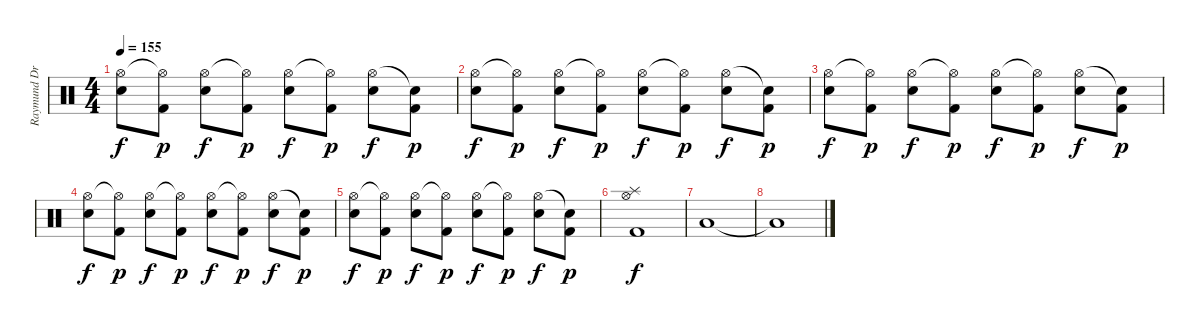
\track ("Raymund Drums" "Raymund Dr") {instrument percussion}
\staff {score}
\articulation defaults
\ts (4 4)
\tempo 155
\clef neutral
\ks c
("Hi-Hat (open)" "Snare (hit) 2").8{dy f} ("Hi-Hat (open)"{t} "Kick (hit) 2").8{dy p} ("Hi-Hat (open)" "Snare (hit) 2").8{dy f} ("Hi-Hat (open)"{t} "Kick (hit) 2").8{dy p} ("Hi-Hat (open)" "Snare (hit) 2").8{dy f} ("Hi-Hat (open)"{t} "Kick (hit) 2").8{dy p} ("Hi-Hat (open)" "Snare (hit) 2").8{dy f} ("Snare (hit)"{t} "Kick (hit) 2").8{dy p} |
("Hi-Hat (open)" "Snare (hit) 2").8{dy f} ("Hi-Hat (open)"{t} "Kick (hit) 2").8{dy p} ("Hi-Hat (open)" "Snare (hit) 2").8{dy f} ("Hi-Hat (open)"{t} "Kick (hit) 2").8{dy p} ("Hi-Hat (open)" "Snare (hit) 2").8{dy f} ("Hi-Hat (open)"{t} "Kick (hit) 2").8{dy p} ("Hi-Hat (open)" "Snare (hit) 2").8{dy f} ("Snare (hit)"{t} "Kick (hit) 2").8{dy p} |
("Hi-Hat (open)" "Snare (hit) 2").8{dy f} ("Hi-Hat (open)"{t} "Kick (hit) 2").8{dy p} ("Hi-Hat (open)" "Snare (hit) 2").8{dy f} ("Hi-Hat (open)"{t} "Kick (hit) 2").8{dy p} ("Hi-Hat (open)" "Snare (hit) 2").8{dy f} ("Hi-Hat (open)"{t} "Kick (hit) 2").8{dy p} ("Hi-Hat (open)" "Snare (hit) 2").8{dy f} ("Snare (hit)"{t} "Kick (hit) 2").8{dy p} |
("Hi-Hat (open)" "Snare (hit) 2").8{dy f} ("Hi-Hat (open)"{t} "Kick (hit) 2").8{dy p} ("Hi-Hat (open)" "Snare (hit) 2").8{dy f} ("Hi-Hat (open)"{t} "Kick (hit) 2").8{dy p} ("Hi-Hat (open)" "Snare (hit) 2").8{dy f} ("Hi-Hat (open)"{t} "Kick (hit) 2").8{dy p} ("Hi-Hat (open)" "Snare (hit) 2").8{dy f} ("Snare (hit)"{t} "Kick (hit) 2").8{dy p} |
("Hi-Hat (open)" "Snare (hit) 2").8{dy f} ("Hi-Hat (open)"{t} "Kick (hit) 2").8{dy p} ("Hi-Hat (open)" "Snare (hit) 2").8{dy f} ("Hi-Hat (open)"{t} "Kick (hit) 2").8{dy p} ("Hi-Hat (open)" "Snare (hit) 2").8{dy f} ("Hi-Hat (open)"{t} "Kick (hit) 2").8{dy p} ("Hi-Hat (open)" "Snare (hit) 2").8{dy f} ("Snare (hit)"{t} "Kick (hit) 2").8{dy p} |
("Hi-Hat (open)" "Kick (hit) 2" "Splash (hit)").1{dy f} |
"Low Tom (hit)".1 |
"Low Tom (hit)"{t}.1
